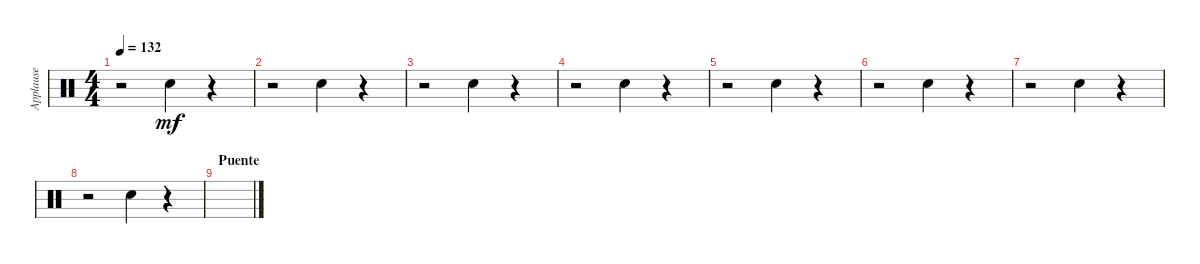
\track ("Applause" "Applause") {instrument percussion}
\staff {score}
\articulation defaults
\ts (4 4)
\tempo 132
\clef neutral
\ks c
r.2{dy mf} "Hand Clap (hit)".4 r.4 |
r.2 "Hand Clap (hit)".4 r.4 |
r.2 "Hand Clap (hit)".4 r.4 |
r.2 "Hand Clap (hit)".4 r.4 |
r.2 "Hand Clap (hit)".4 r.4 |
r.2 "Hand Clap (hit)".4 r.4 |
r.2 "Hand Clap (hit)".4 r.4 |
r.2 "Hand Clap (hit)".4 r.4 |
\section ("" "Puente")
